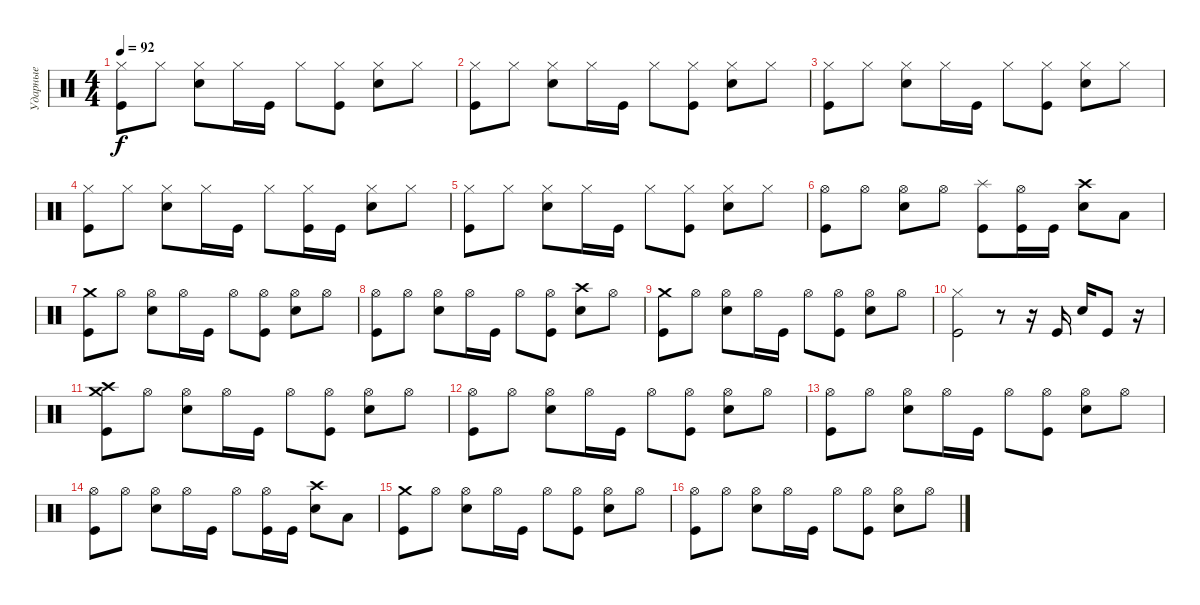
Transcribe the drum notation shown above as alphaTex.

\track ("Ударные" "Ударные") {instrument percussion}
\staff {score}
\articulation defaults
\ts (4 4)
\tempo 92
\clef neutral
\ks c
("Kick (hit)" "Hi-Hat (closed)").8{dy f} "Hi-Hat (closed)".8 ("Hi-Hat (closed)" "Snare (hit) 2").8 "Hi-Hat (closed)".16 "Kick (hit)".16 "Hi-Hat (closed)".8 ("Kick (hit)" "Hi-Hat (closed)").8 ("Hi-Hat (closed)" "Snare (hit) 2").8 "Hi-Hat (closed)".8 |
("Kick (hit)" "Hi-Hat (closed)").8 "Hi-Hat (closed)".8 ("Hi-Hat (closed)" "Snare (hit) 2").8 "Hi-Hat (closed)".16 "Kick (hit)".16 "Hi-Hat (closed)".8 ("Kick (hit)" "Hi-Hat (closed)").8 ("Hi-Hat (closed)" "Snare (hit) 2").8 "Hi-Hat (closed)".8 |
("Kick (hit)" "Hi-Hat (closed)").8 "Hi-Hat (closed)".8 ("Hi-Hat (closed)" "Snare (hit) 2").8 "Hi-Hat (closed)".16 "Kick (hit)".16 "Hi-Hat (closed)".8 ("Kick (hit)" "Hi-Hat (closed)").8 ("Hi-Hat (closed)" "Snare (hit) 2").8 "Hi-Hat (closed)".8 |
("Kick (hit)" "Hi-Hat (closed)").8 "Hi-Hat (closed)".8 ("Hi-Hat (closed)" "Snare (hit) 2").8 "Hi-Hat (closed)".16 "Kick (hit)".16 "Hi-Hat (closed)".8 ("Kick (hit)" "Hi-Hat (closed)").16 "Kick (hit)".16 ("Hi-Hat (closed)" "Snare (hit) 2").8 "Hi-Hat (closed)".8 |
("Kick (hit)" "Hi-Hat (closed)").8 "Hi-Hat (closed)".8 ("Hi-Hat (closed)" "Snare (hit) 2").8 "Hi-Hat (closed)".16 "Kick (hit)".16 "Hi-Hat (closed)".8 ("Kick (hit)" "Hi-Hat (closed)").8 ("Hi-Hat (closed)" "Snare (hit) 2").8 "Hi-Hat (closed)".8 |
("Kick (hit)" "Hi-Hat (open)").8 "Hi-Hat (open)".8 ("Hi-Hat (open)" "Snare (hit) 2").8 "Hi-Hat (open)".8 ("Splash (hit)" "Kick (hit)").8 ("Kick (hit)" "Hi-Hat (open)").16 "Kick (hit)".16 ("Crash high (hit)" "Snare (hit) 2").8 "Low Tom (hit)".8 |
("Kick (hit)" "Crash medium (hit)").8 "Hi-Hat (open)".8 ("Hi-Hat (open)" "Snare (hit) 2").8 "Hi-Hat (open)".16 "Kick (hit)".16 "Hi-Hat (open)".8 ("Kick (hit)" "Hi-Hat (open)").8 ("Hi-Hat (open)" "Snare (hit) 2").8 "Hi-Hat (open)".8 |
("Kick (hit)" "Hi-Hat (open)").8 "Hi-Hat (open)".8 ("Hi-Hat (open)" "Snare (hit) 2").8 "Hi-Hat (open)".16 "Kick (hit)".16 "Hi-Hat (open)".8 ("Kick (hit)" "Hi-Hat (open)").8 ("Crash high (hit)" "Snare (hit) 2").8 "Hi-Hat (open)".8 |
("Kick (hit)" "Crash medium (hit)").8 "Hi-Hat (open)".8 ("Hi-Hat (open)" "Snare (hit) 2").8 "Hi-Hat (open)".16 "Kick (hit)".16 "Hi-Hat (open)".8 ("Kick (hit)" "Hi-Hat (open)").8 ("Hi-Hat (open)" "Snare (hit) 2").8 "Hi-Hat (open)".8 |
("Kick (hit)" "Hi-Hat (closed)").2 r.8 r.16 "Kick (hit)".16 "Snare (hit) 2".16 "Kick (hit)".8 r.16 |
("Kick (hit)" "Crash high (hit)" "Crash medium (hit)").8 "Hi-Hat (open)".8 ("Hi-Hat (open)" "Snare (hit) 2").8 "Hi-Hat (open)".16 "Kick (hit)".16 "Hi-Hat (open)".8 ("Kick (hit)" "Hi-Hat (open)").8 ("Hi-Hat (open)" "Snare (hit) 2").8 "Hi-Hat (open)".8 |
("Kick (hit)" "Hi-Hat (open)").8 "Hi-Hat (open)".8 ("Hi-Hat (open)" "Snare (hit) 2").8 "Hi-Hat (open)".16 "Kick (hit)".16 "Hi-Hat (open)".8 ("Kick (hit)" "Hi-Hat (open)").8 ("Hi-Hat (open)" "Snare (hit) 2").8 "Hi-Hat (open)".8 |
("Kick (hit)" "Hi-Hat (open)").8 "Hi-Hat (open)".8 ("Hi-Hat (open)" "Snare (hit) 2").8 "Hi-Hat (open)".16 "Kick (hit)".16 "Hi-Hat (open)".8 ("Kick (hit)" "Hi-Hat (open)").8 ("Hi-Hat (open)" "Snare (hit) 2").8 "Hi-Hat (open)".8 |
("Kick (hit)" "Hi-Hat (open)").8 "Hi-Hat (open)".8 ("Hi-Hat (open)" "Snare (hit) 2").8 "Hi-Hat (open)".16 "Kick (hit)".16 "Hi-Hat (open)".8 ("Kick (hit)" "Hi-Hat (open)").16 "Kick (hit)".16 ("Crash high (hit)" "Snare (hit) 2").8 "Low Tom (hit)".8 |
("Kick (hit)" "Crash medium (hit)").8 "Hi-Hat (open)".8 ("Hi-Hat (open)" "Snare (hit) 2").8 "Hi-Hat (open)".16 "Kick (hit)".16 "Hi-Hat (open)".8 ("Kick (hit)" "Hi-Hat (open)").8 ("Hi-Hat (open)" "Snare (hit) 2").8 "Hi-Hat (open)".8 |
("Kick (hit)" "Hi-Hat (open)").8 "Hi-Hat (open)".8 ("Hi-Hat (open)" "Snare (hit) 2").8 "Hi-Hat (open)".16 "Kick (hit)".16 "Hi-Hat (open)".8 ("Kick (hit)" "Hi-Hat (open)").8 ("Hi-Hat (open)" "Snare (hit) 2").8 "Hi-Hat (open)".8
